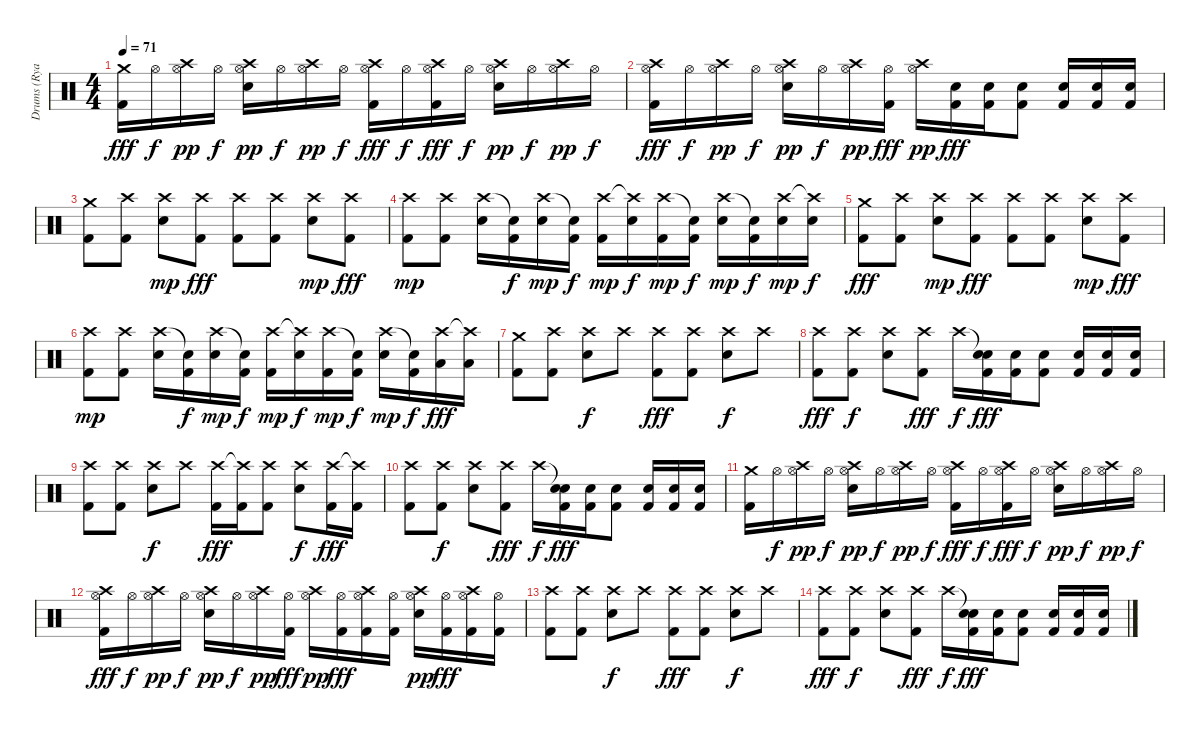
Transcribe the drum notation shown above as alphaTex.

\track ("Drums (Ryan \"Nik\" Vikedal)" "Drums (Rya") {instrument percussion}
\staff {score}
\articulation defaults
\ts (4 4)
\tempo 71
\clef neutral
\ks c
("Crash medium (hit)" "Kick (hit) 2").16{dy fff} "Hi-Hat (open)".16{dy f} ("Crash high (hit)" "Hi-Hat (open)").16{dy pp} "Hi-Hat (open)".16{dy f} ("Crash high (hit)" "Hi-Hat (open)" "Electric Snare (hit)").16{dy pp} "Hi-Hat (open)".16{dy f} ("Crash high (hit)" "Hi-Hat (open)").16{dy pp} "Hi-Hat (open)".16{dy f} ("Crash high (hit)" "Hi-Hat (open)" "Kick (hit) 2").16{dy fff} "Hi-Hat (open)".16{dy f} ("Crash high (hit)" "Hi-Hat (open)" "Kick (hit) 2").16{dy fff} "Hi-Hat (open)".16{dy f} ("Crash high (hit)" "Hi-Hat (open)" "Electric Snare (hit)").16{dy pp} "Hi-Hat (open)".16{dy f} ("Crash high (hit)" "Hi-Hat (open)").16{dy pp} "Hi-Hat (open)".16{dy f} |
("Crash high (hit)" "Hi-Hat (open)" "Kick (hit) 2").16{dy fff} "Hi-Hat (open)".16{dy f} ("Crash high (hit)" "Hi-Hat (open)").16{dy pp} "Hi-Hat (open)".16{dy f} ("Crash high (hit)" "Hi-Hat (open)" "Electric Snare (hit)").16{dy pp} "Hi-Hat (open)".16{dy f} ("Crash high (hit)" "Hi-Hat (open)").16{dy pp} ("Hi-Hat (open)" "Kick (hit) 2").16{dy fff} ("Crash high (hit)" "Hi-Hat (open)").16{dy pp} ("Electric Snare (hit)" "Kick (hit) 2").16{dy fff} ("Electric Snare (hit)" "Kick (hit) 2").16 ("Electric Snare (hit)" "Kick (hit) 2").8 ("Electric Snare (hit)" "Kick (hit) 2").16 ("Electric Snare (hit)" "Kick (hit) 2").16 ("Electric Snare (hit)" "Kick (hit) 2").16 |
("Crash medium (hit)" "Kick (hit) 2").8 ("Crash high (hit)" "Kick (hit) 2").8 ("Crash high (hit)" "Electric Snare (hit)").8{dy mp} ("Crash high (hit)" "Kick (hit) 2").8{dy fff} ("Crash high (hit)" "Kick (hit) 2").8 ("Crash high (hit)" "Kick (hit) 2").8 ("Crash high (hit)" "Electric Snare (hit)").8{dy mp} ("Crash high (hit)" "Kick (hit) 2").8{dy fff} |
("Crash high (hit)" "Kick (hit) 2").8{dy mp} ("Crash high (hit)" "Kick (hit) 2").8 ("Crash high (hit)" "Electric Snare (hit)").16 ("Snare (hit)"{t} "Kick (hit) 2").16{dy f} ("Crash high (hit)" "Electric Snare (hit)").16{dy mp} ("Snare (hit)"{t} "Kick (hit) 2").16{dy f} ("Crash high (hit)" "Kick (hit) 2").16{dy mp} ("Crash high (hit)"{t} "Electric Snare (hit)").16{dy f} ("Crash high (hit)" "Kick (hit) 2").16{dy mp} ("Snare (hit)"{t} "Kick (hit) 2").16{dy f} ("Crash high (hit)" "Electric Snare (hit)").16{dy mp} ("Snare (hit)"{t} "Kick (hit) 2").16{dy f} ("Crash high (hit)" "Electric Snare (hit)").16{dy mp} ("Crash high (hit)"{t} "Electric Snare (hit)").16{dy f} |
("Crash medium (hit)" "Kick (hit) 2").8{dy fff} ("Crash high (hit)" "Kick (hit) 2").8 ("Crash high (hit)" "Electric Snare (hit)").8{dy mp} ("Crash high (hit)" "Kick (hit) 2").8{dy fff} ("Crash high (hit)" "Kick (hit) 2").8 ("Crash high (hit)" "Kick (hit) 2").8 ("Crash high (hit)" "Electric Snare (hit)").8{dy mp} ("Crash high (hit)" "Kick (hit) 2").8{dy fff} |
("Crash high (hit)" "Kick (hit) 2").8{dy mp} ("Crash high (hit)" "Kick (hit) 2").8 ("Crash high (hit)" "Electric Snare (hit)").16 ("Snare (hit)"{t} "Kick (hit) 2").16{dy f} ("Crash high (hit)" "Electric Snare (hit)").16{dy mp} ("Snare (hit)"{t} "Kick (hit) 2").16{dy f} ("Crash high (hit)" "Kick (hit) 2").16{dy mp} ("Crash high (hit)"{t} "Electric Snare (hit)").16{dy f} ("Crash high (hit)" "Kick (hit) 2").16{dy mp} ("Snare (hit)"{t} "Kick (hit) 2").16{dy f} ("Crash high (hit)" "Electric Snare (hit)").16{dy mp} ("Snare (hit)"{t} "Kick (hit) 2").16{dy f} ("Crash high (hit)" "Low Tom (hit)").16{dy fff} ("Crash high (hit)"{t} "Low Tom (hit)").16 |
("Crash medium (hit)" "Kick (hit) 2").8 ("Crash high (hit)" "Kick (hit) 2").8 ("Crash high (hit)" "Electric Snare (hit)").8{dy f} "Crash high (hit)".8 ("Crash high (hit)" "Kick (hit) 2").8{dy fff} ("Crash high (hit)" "Kick (hit) 2").8 ("Crash high (hit)" "Electric Snare (hit)").8{dy f} "Crash high (hit)".8 |
("Crash high (hit)" "Kick (hit) 2").8{dy fff} ("Crash high (hit)" "Kick (hit) 2").8{dy f} ("Crash high (hit)" "Electric Snare (hit)").8 ("Crash high (hit)" "Kick (hit) 2").8{dy fff} "Crash high (hit)".16{dy f} ("Snare (hit)"{t} "Electric Snare (hit)" "Kick (hit) 2").16{dy fff} ("Electric Snare (hit)" "Kick (hit) 2").16 ("Electric Snare (hit)" "Kick (hit) 2").8 ("Electric Snare (hit)" "Kick (hit) 2").16 ("Electric Snare (hit)" "Kick (hit) 2").16 ("Electric Snare (hit)" "Kick (hit) 2").16 |
("Crash high (hit)" "Kick (hit) 2").8 ("Crash high (hit)" "Kick (hit) 2").8 ("Crash high (hit)" "Electric Snare (hit)").8{dy f} "Crash high (hit)".8 ("Crash high (hit)" "Kick (hit) 2").16{dy fff} ("Crash high (hit)"{t} "Kick (hit) 2").16 ("Crash high (hit)" "Kick (hit) 2").8 ("Crash high (hit)" "Electric Snare (hit)").8{dy f} ("Crash high (hit)" "Kick (hit) 2").16{dy fff} ("Crash high (hit)"{t} "Kick (hit) 2").16 |
("Crash high (hit)" "Kick (hit) 2").8 ("Crash high (hit)" "Kick (hit) 2").8{dy f} ("Crash high (hit)" "Electric Snare (hit)").8 ("Crash high (hit)" "Kick (hit) 2").8{dy fff} "Crash high (hit)".16{dy f} ("Snare (hit)"{t} "Electric Snare (hit)" "Kick (hit) 2").16{dy fff} ("Electric Snare (hit)" "Kick (hit) 2").16 ("Electric Snare (hit)" "Kick (hit) 2").8 ("Electric Snare (hit)" "Kick (hit) 2").16 ("Electric Snare (hit)" "Kick (hit) 2").16 ("Electric Snare (hit)" "Kick (hit) 2").16 |
("Crash medium (hit)" "Kick (hit) 2").16 "Hi-Hat (open)".16{dy f} ("Crash high (hit)" "Hi-Hat (open)").16{dy pp} "Hi-Hat (open)".16{dy f} ("Crash high (hit)" "Hi-Hat (open)" "Electric Snare (hit)").16{dy pp} "Hi-Hat (open)".16{dy f} ("Crash high (hit)" "Hi-Hat (open)").16{dy pp} "Hi-Hat (open)".16{dy f} ("Crash high (hit)" "Hi-Hat (open)" "Kick (hit) 2").16{dy fff} "Hi-Hat (open)".16{dy f} ("Crash high (hit)" "Hi-Hat (open)" "Kick (hit) 2").16{dy fff} "Hi-Hat (open)".16{dy f} ("Crash high (hit)" "Hi-Hat (open)" "Electric Snare (hit)").16{dy pp} "Hi-Hat (open)".16{dy f} ("Crash high (hit)" "Hi-Hat (open)").16{dy pp} "Hi-Hat (open)".16{dy f} |
("Crash high (hit)" "Hi-Hat (open)" "Kick (hit) 2").16{dy fff} "Hi-Hat (open)".16{dy f} ("Crash high (hit)" "Hi-Hat (open)").16{dy pp} "Hi-Hat (open)".16{dy f} ("Crash high (hit)" "Hi-Hat (open)" "Electric Snare (hit)").16{dy pp} "Hi-Hat (open)".16{dy f} ("Crash high (hit)" "Hi-Hat (open)").16{dy pp} ("Hi-Hat (open)" "Kick (hit) 2").16{dy fff} ("Crash high (hit)" "Hi-Hat (open)").16{dy pp} ("Hi-Hat (open)" "Kick (hit) 2").16{dy fff} ("Crash high (hit)" "Hi-Hat (open)" "Kick (hit) 2").16 ("Hi-Hat (open)" "Kick (hit) 2").16 ("Crash high (hit)" "Hi-Hat (open)" "Electric Snare (hit)").16{dy pp} ("Hi-Hat (open)" "Kick (hit) 2").16{dy fff} ("Crash high (hit)" "Hi-Hat (open)" "Kick (hit) 2").16 ("Hi-Hat (open)" "Kick (hit) 2").16 |
("Crash high (hit)" "Kick (hit) 2").8 ("Crash high (hit)" "Kick (hit) 2").8 ("Crash high (hit)" "Electric Snare (hit)").8{dy f} "Crash high (hit)".8 ("Crash high (hit)" "Kick (hit) 2").8{dy fff} ("Crash high (hit)" "Kick (hit) 2").8 ("Crash high (hit)" "Electric Snare (hit)").8{dy f} "Crash high (hit)".8 |
("Crash high (hit)" "Kick (hit) 2").8{dy fff} ("Crash high (hit)" "Kick (hit) 2").8{dy f} ("Crash high (hit)" "Electric Snare (hit)").8 ("Crash high (hit)" "Kick (hit) 2").8{dy fff} "Crash high (hit)".16{dy f} ("Snare (hit)"{t} "Electric Snare (hit)" "Kick (hit) 2").16{dy fff} ("Electric Snare (hit)" "Kick (hit) 2").16 ("Electric Snare (hit)" "Kick (hit) 2").8 ("Electric Snare (hit)" "Kick (hit) 2").16 ("Electric Snare (hit)" "Kick (hit) 2").16 ("Electric Snare (hit)" "Kick (hit) 2").16
